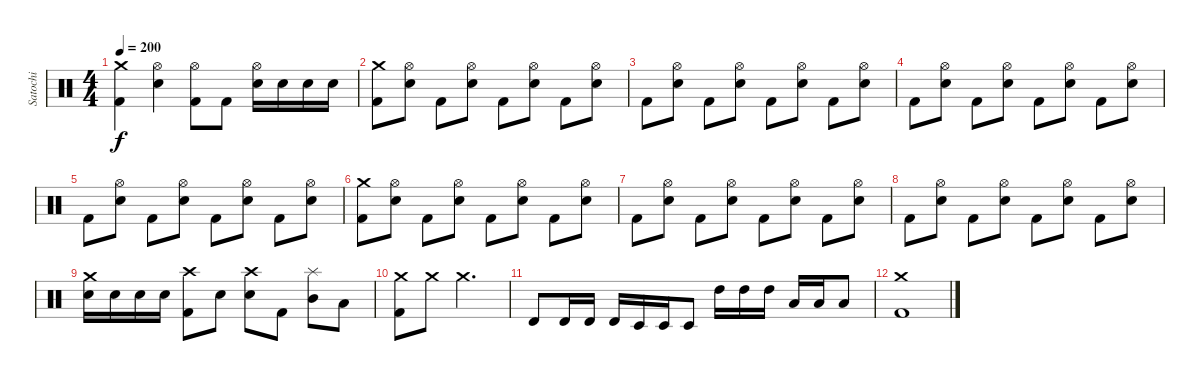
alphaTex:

\track ("Satochi" "Satochi") {instrument percussion}
\staff {score}
\articulation defaults
\ts (4 4)
\tempo 200
\clef neutral
\ks c
("Crash medium (hit)" "Kick (hit) 2").4{dy f} ("Hi-Hat (open)" "Electric Snare (hit)").4 ("Hi-Hat (open)" "Kick (hit) 2").8 "Kick (hit) 2".8 ("Hi-Hat (open)" "Electric Snare (hit)").16 "Electric Snare (hit)".16 "Electric Snare (hit)".16 "Electric Snare (hit)".16 |
("Crash medium (hit)" "Kick (hit) 2").8 ("Hi-Hat (open)" "Electric Snare (hit)").8 "Kick (hit) 2".8 ("Hi-Hat (open)" "Electric Snare (hit)").8 "Kick (hit) 2".8 ("Hi-Hat (open)" "Electric Snare (hit)").8 "Kick (hit) 2".8 ("Hi-Hat (open)" "Electric Snare (hit)").8 |
"Kick (hit) 2".8 ("Hi-Hat (open)" "Electric Snare (hit)").8 "Kick (hit) 2".8 ("Hi-Hat (open)" "Electric Snare (hit)").8 "Kick (hit) 2".8 ("Hi-Hat (open)" "Electric Snare (hit)").8 "Kick (hit) 2".8 ("Hi-Hat (open)" "Electric Snare (hit)").8 |
"Kick (hit) 2".8 ("Hi-Hat (open)" "Electric Snare (hit)").8 "Kick (hit) 2".8 ("Hi-Hat (open)" "Electric Snare (hit)").8 "Kick (hit) 2".8 ("Hi-Hat (open)" "Electric Snare (hit)").8 "Kick (hit) 2".8 ("Hi-Hat (open)" "Electric Snare (hit)").8 |
"Kick (hit) 2".8 ("Hi-Hat (open)" "Electric Snare (hit)").8 "Kick (hit) 2".8 ("Hi-Hat (open)" "Electric Snare (hit)").8 "Kick (hit) 2".8 ("Hi-Hat (open)" "Electric Snare (hit)").8 "Kick (hit) 2".8 ("Hi-Hat (open)" "Electric Snare (hit)").8 |
("Crash medium (hit)" "Kick (hit) 2").8 ("Hi-Hat (open)" "Electric Snare (hit)").8 "Kick (hit) 2".8 ("Hi-Hat (open)" "Electric Snare (hit)").8 "Kick (hit) 2".8 ("Hi-Hat (open)" "Electric Snare (hit)").8 "Kick (hit) 2".8 ("Hi-Hat (open)" "Electric Snare (hit)").8 |
"Kick (hit) 2".8 ("Hi-Hat (open)" "Electric Snare (hit)").8 "Kick (hit) 2".8 ("Hi-Hat (open)" "Electric Snare (hit)").8 "Kick (hit) 2".8 ("Hi-Hat (open)" "Electric Snare (hit)").8 "Kick (hit) 2".8 ("Hi-Hat (open)" "Electric Snare (hit)").8 |
"Kick (hit) 2".8 ("Hi-Hat (open)" "Electric Snare (hit)").8 "Kick (hit) 2".8 ("Hi-Hat (open)" "Electric Snare (hit)").8 "Kick (hit) 2".8 ("Hi-Hat (open)" "Electric Snare (hit)").8 "Kick (hit) 2".8 ("Hi-Hat (open)" "Electric Snare (hit)").8 |
("Crash medium (hit)" "Electric Snare (hit)").16 "Electric Snare (hit)".16 "Electric Snare (hit)".16 "Electric Snare (hit)".16 ("Crash high (hit)" "Kick (hit) 2").8 "Electric Snare (hit)".8 ("Crash high (hit)" "Electric Snare (hit)").8 "Kick (hit) 2".8 ("Splash (hit)" "Mid Tom (hit)").8 "Low Tom (hit)".8 |
("Crash medium (hit)" "Kick (hit) 2").8 "Crash medium (hit)".8 "Crash medium (hit)".2{d} |
"Timbale high (hit)".8 "Timbale high (hit)".16 "Timbale high (hit)".16 "Timbale high (hit)".16 "Timbale low (hit)".16 "Timbale low (hit)".16 "Timbale low (hit)".8 "High Tom (hit)".16 "High Tom (hit)".16 "High Tom (hit)".16 "Low Tom (hit)".16 "Low Tom (hit)".16 "Low Tom (hit)".8 |
("Crash medium (hit)" "Kick (hit) 2").1
